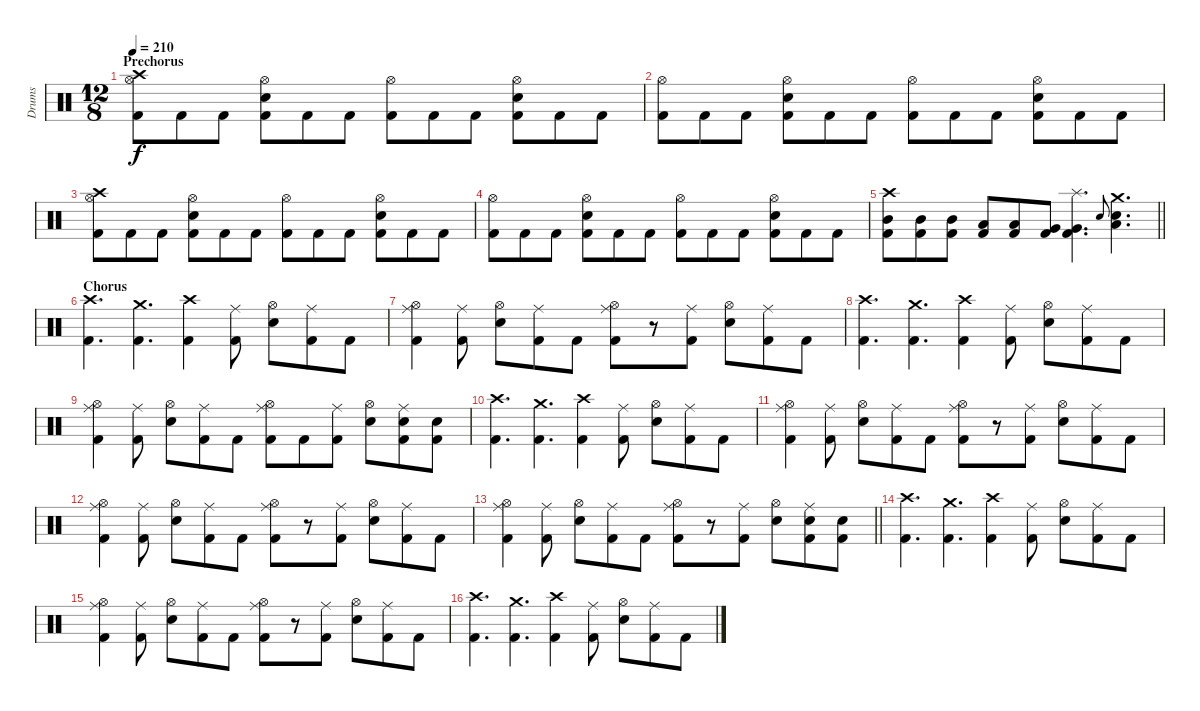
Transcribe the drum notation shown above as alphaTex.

\track ("Drums" "Drums") {instrument percussion}
\staff {score}
\articulation defaults
\ts (12 8)
\section ("" "Prechorus")
\tempo 210
\clef neutral
\ks c
("Crash high (hit)" "Hi-Hat (open)" "Kick (hit) 2").8{dy f} "Kick (hit) 2".8 "Kick (hit) 2".8 ("Hi-Hat (open)" "Snare (hit) 2" "Kick (hit) 2").8 "Kick (hit) 2".8 "Kick (hit) 2".8 ("Hi-Hat (open)" "Kick (hit) 2").8 "Kick (hit) 2".8 "Kick (hit) 2".8 ("Hi-Hat (open)" "Snare (hit) 2" "Kick (hit) 2").8 "Kick (hit) 2".8 "Kick (hit) 2".8 |
("Hi-Hat (open)" "Kick (hit) 2").8 "Kick (hit) 2".8 "Kick (hit) 2".8 ("Hi-Hat (open)" "Snare (hit) 2" "Kick (hit) 2").8 "Kick (hit) 2".8 "Kick (hit) 2".8 ("Hi-Hat (open)" "Kick (hit) 2").8 "Kick (hit) 2".8 "Kick (hit) 2".8 ("Hi-Hat (open)" "Snare (hit) 2" "Kick (hit) 2").8 "Kick (hit) 2".8 "Kick (hit) 2".8 |
("Crash high (hit)" "Hi-Hat (open)" "Kick (hit) 2").8 "Kick (hit) 2".8 "Kick (hit) 2".8 ("Hi-Hat (open)" "Snare (hit) 2" "Kick (hit) 2").8 "Kick (hit) 2".8 "Kick (hit) 2".8 ("Hi-Hat (open)" "Kick (hit) 2").8 "Kick (hit) 2".8 "Kick (hit) 2".8 ("Hi-Hat (open)" "Snare (hit) 2" "Kick (hit) 2").8 "Kick (hit) 2".8 "Kick (hit) 2".8 |
("Hi-Hat (open)" "Kick (hit) 2").8 "Kick (hit) 2".8 "Kick (hit) 2".8 ("Hi-Hat (open)" "Snare (hit) 2" "Kick (hit) 2").8 "Kick (hit) 2".8 "Kick (hit) 2".8 ("Hi-Hat (open)" "Kick (hit) 2").8 "Kick (hit) 2".8 "Kick (hit) 2".8 ("Hi-Hat (open)" "Snare (hit) 2" "Kick (hit) 2").8 "Kick (hit) 2".8 "Kick (hit) 2".8 |
\barLineRight lightlight
("Crash high (hit)" "Mid Tom (hit)" "Kick (hit) 2").8 ("Mid Tom (hit)" "Kick (hit) 2").8 ("Mid Tom (hit)" "Kick (hit) 2").8 ("Low Tom (hit)" "Kick (hit) 2").8 ("Low Tom (hit)" "Kick (hit) 2").8 ("Very Low Tom (hit)" "Kick (hit) 2").8 ("Splash (hit)" "Very Low Tom (hit)" "Kick (hit) 2").4{d} "Snare (hit) 2".8{gr onbeat} ("Crash medium (hit)" "Low Floor Tom (hit)" "Snare (hit) 2").4{d} |
\section ("" "Chorus")
("Crash high (hit)" "Kick (hit) 2").4{d} ("Crash medium (hit)" "Kick (hit) 2").4{d} ("Crash high (hit)" "Kick (hit) 2").4 ("Ride (middle)" "Kick (hit) 2").8 ("Hi-Hat (open)" "Snare (hit) 2").8 ("Ride (middle)" "Kick (hit) 2").8 "Kick (hit) 2".8 |
("Ride (middle)" "Hi-Hat (open)" "Kick (hit) 2").4 ("Ride (middle)" "Kick (hit) 2").8 ("Hi-Hat (open)" "Snare (hit) 2").8 ("Ride (middle)" "Kick (hit) 2").8 "Kick (hit) 2".8 ("Ride (middle)" "Hi-Hat (open)" "Kick (hit) 2").8 r.8 ("Ride (middle)" "Kick (hit) 2").8 ("Hi-Hat (open)" "Snare (hit) 2").8 ("Ride (middle)" "Kick (hit) 2").8 "Kick (hit) 2".8 |
("Crash high (hit)" "Kick (hit) 2").4{d} ("Crash medium (hit)" "Kick (hit) 2").4{d} ("Crash high (hit)" "Kick (hit) 2").4 ("Ride (middle)" "Kick (hit) 2").8 ("Hi-Hat (open)" "Snare (hit) 2").8 ("Ride (middle)" "Kick (hit) 2").8 "Kick (hit) 2".8 |
("Ride (middle)" "Hi-Hat (open)" "Kick (hit) 2").4 ("Ride (middle)" "Kick (hit) 2").8 ("Hi-Hat (open)" "Snare (hit) 2").8 ("Ride (middle)" "Kick (hit) 2").8 "Kick (hit) 2".8 ("Ride (middle)" "Hi-Hat (open)" "Kick (hit) 2").8 "Kick (hit) 2".8 ("Ride (middle)" "Kick (hit) 2").8 ("Hi-Hat (open)" "Snare (hit) 2").8 ("Ride (middle)" "Snare (hit) 2" "Kick (hit) 2").8 ("Snare (hit) 2" "Kick (hit) 2").8 |
("Crash high (hit)" "Kick (hit) 2").4{d} ("Crash medium (hit)" "Kick (hit) 2").4{d} ("Crash high (hit)" "Kick (hit) 2").4 ("Ride (middle)" "Kick (hit) 2").8 ("Hi-Hat (open)" "Snare (hit) 2").8 ("Ride (middle)" "Kick (hit) 2").8 "Kick (hit) 2".8 |
("Ride (middle)" "Hi-Hat (open)" "Kick (hit) 2").4 ("Ride (middle)" "Kick (hit) 2").8 ("Hi-Hat (open)" "Snare (hit) 2").8 ("Ride (middle)" "Kick (hit) 2").8 "Kick (hit) 2".8 ("Ride (middle)" "Hi-Hat (open)" "Kick (hit) 2").8 r.8 ("Ride (middle)" "Kick (hit) 2").8 ("Hi-Hat (open)" "Snare (hit) 2").8 ("Ride (middle)" "Kick (hit) 2").8 "Kick (hit) 2".8 |
("Ride (middle)" "Hi-Hat (open)" "Kick (hit) 2").4 ("Ride (middle)" "Kick (hit) 2").8 ("Hi-Hat (open)" "Snare (hit) 2").8 ("Ride (middle)" "Kick (hit) 2").8 "Kick (hit) 2".8 ("Ride (middle)" "Hi-Hat (open)" "Kick (hit) 2").8 r.8 ("Ride (middle)" "Kick (hit) 2").8 ("Hi-Hat (open)" "Snare (hit) 2").8 ("Ride (middle)" "Kick (hit) 2").8 "Kick (hit) 2".8 |
\barLineRight lightlight
("Ride (middle)" "Hi-Hat (open)" "Kick (hit) 2").4 ("Ride (middle)" "Kick (hit) 2").8 ("Hi-Hat (open)" "Snare (hit) 2").8 ("Ride (middle)" "Kick (hit) 2").8 "Kick (hit) 2".8 ("Ride (middle)" "Hi-Hat (open)" "Kick (hit) 2").8 r.8 ("Ride (middle)" "Kick (hit) 2").8 ("Hi-Hat (open)" "Snare (hit) 2").8 ("Ride (middle)" "Snare (hit) 2" "Kick (hit) 2").8 ("Snare (hit) 2" "Kick (hit) 2").8 |
("Crash high (hit)" "Kick (hit) 2").4{d} ("Crash medium (hit)" "Kick (hit) 2").4{d} ("Crash high (hit)" "Kick (hit) 2").4 ("Ride (middle)" "Kick (hit) 2").8 ("Hi-Hat (open)" "Snare (hit) 2").8 ("Ride (middle)" "Kick (hit) 2").8 "Kick (hit) 2".8 |
("Ride (middle)" "Hi-Hat (open)" "Kick (hit) 2").4 ("Ride (middle)" "Kick (hit) 2").8 ("Hi-Hat (open)" "Snare (hit) 2").8 ("Ride (middle)" "Kick (hit) 2").8 "Kick (hit) 2".8 ("Ride (middle)" "Hi-Hat (open)" "Kick (hit) 2").8 r.8 ("Ride (middle)" "Kick (hit) 2").8 ("Hi-Hat (open)" "Snare (hit) 2").8 ("Ride (middle)" "Kick (hit) 2").8 "Kick (hit) 2".8 |
("Crash high (hit)" "Kick (hit) 2").4{d} ("Crash medium (hit)" "Kick (hit) 2").4{d} ("Crash high (hit)" "Kick (hit) 2").4 ("Ride (middle)" "Kick (hit) 2").8 ("Hi-Hat (open)" "Snare (hit) 2").8 ("Ride (middle)" "Kick (hit) 2").8 "Kick (hit) 2".8
